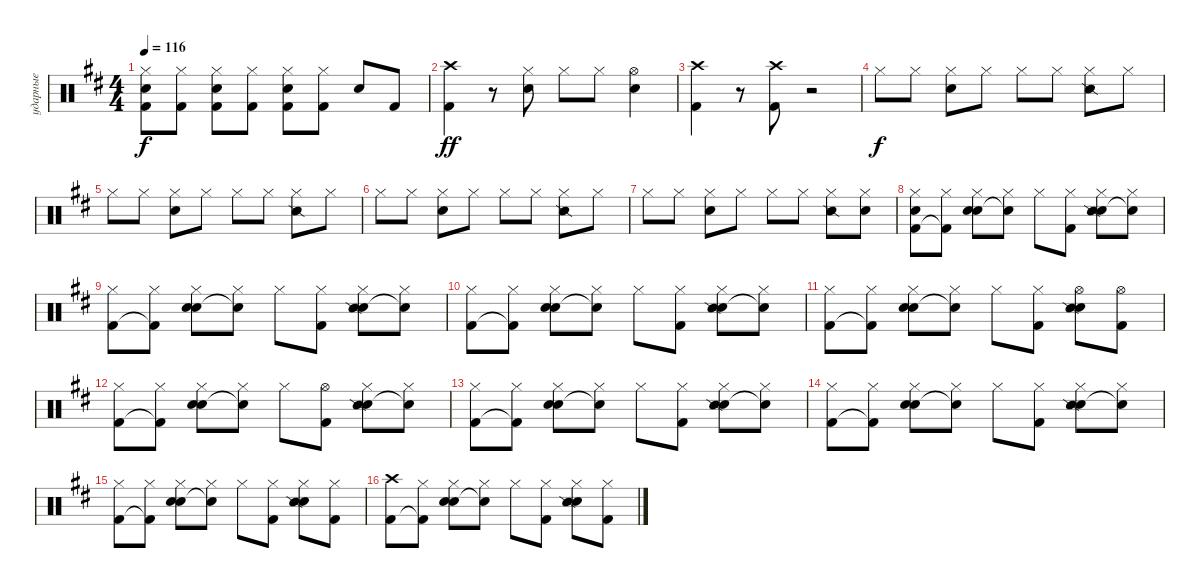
\track ("ударные" "ударные") {instrument percussion}
\staff {score}
\articulation defaults
\ts (4 4)
\tempo 116
\clef neutral
\ks d
("Hi-Hat (closed)" "Snare (hit) 2" "Kick (hit) 2").8{dy f} ("Hi-Hat (closed)" "Kick (hit) 2").8 ("Hi-Hat (closed)" "Snare (hit) 2" "Kick (hit) 2").8 ("Hi-Hat (closed)" "Kick (hit) 2").8 ("Hi-Hat (closed)" "Snare (hit) 2" "Kick (hit) 2").8 ("Hi-Hat (closed)" "Kick (hit) 2").8 "Snare (hit) 2".8 "Kick (hit) 2".8 |
("Crash high (hit)" "Kick (hit) 2").4{dy ff} r.8 ("Hi-Hat (closed)" "Snare (hit) 2").8 "Hi-Hat (closed)".8 "Hi-Hat (closed)".8 ("Hi-Hat (open)" "Snare (hit) 2").4 |
("Crash high (hit)" "Kick (hit) 2").4 r.8 ("Crash high (hit)" "Kick (hit) 2").8 r.2 |
"Hi-Hat (closed)".8{dy f} "Hi-Hat (closed)".8 ("Hi-Hat (closed)" "Hand Clap (hit)").8 "Hi-Hat (closed)".8 "Hi-Hat (closed)".8 "Hi-Hat (closed)".8 ("Hi-Hat (closed)" "Snare (side stick) 2").8 "Hi-Hat (closed)".8 |
"Hi-Hat (closed)".8 "Hi-Hat (closed)".8 ("Hi-Hat (closed)" "Hand Clap (hit)").8 "Hi-Hat (closed)".8 "Hi-Hat (closed)".8 "Hi-Hat (closed)".8 ("Hi-Hat (closed)" "Snare (side stick) 2").8 "Hi-Hat (closed)".8 |
"Hi-Hat (closed)".8 "Hi-Hat (closed)".8 ("Hi-Hat (closed)" "Hand Clap (hit)").8 "Hi-Hat (closed)".8 "Hi-Hat (closed)".8 "Hi-Hat (closed)".8 ("Hi-Hat (closed)" "Snare (side stick) 2").8 "Hi-Hat (closed)".8 |
"Hi-Hat (closed)".8 "Hi-Hat (closed)".8 ("Hi-Hat (closed)" "Hand Clap (hit)").8 "Hi-Hat (closed)".8 "Hi-Hat (closed)".8 "Hi-Hat (closed)".8 ("Hi-Hat (closed)" "Snare (side stick) 2").8 ("Hi-Hat (closed)" "Hand Clap (hit)").8 |
("Hi-Hat (closed)" "Kick (hit) 2" "Snare (hit) 2").8 ("Hi-Hat (closed)" "Kick (hit) 2"{t}).8 ("Hi-Hat (closed)" "Snare (hit) 2" "Hand Clap (hit)").8 ("Hi-Hat (closed)" "Snare (hit) 2"{t}).8 "Hi-Hat (closed)".8 ("Hi-Hat (closed)" "Kick (hit) 2").8 ("Hi-Hat (closed)" "Snare (hit) 2" "Snare (side stick) 2").8 ("Hi-Hat (closed)" "Snare (hit) 2"{t}).8 |
("Hi-Hat (closed)" "Kick (hit) 2").8 ("Hi-Hat (closed)" "Kick (hit) 2"{t}).8 ("Hi-Hat (closed)" "Snare (hit) 2" "Hand Clap (hit)").8 ("Hi-Hat (closed)" "Snare (hit) 2"{t}).8 "Hi-Hat (closed)".8 ("Hi-Hat (closed)" "Kick (hit) 2").8 ("Hi-Hat (closed)" "Snare (hit) 2" "Snare (side stick) 2").8 ("Hi-Hat (closed)" "Snare (hit) 2"{t}).8 |
("Hi-Hat (closed)" "Kick (hit) 2").8 ("Hi-Hat (closed)" "Kick (hit) 2"{t}).8 ("Hi-Hat (closed)" "Snare (hit) 2" "Hand Clap (hit)").8 ("Hi-Hat (closed)" "Snare (hit) 2"{t}).8 "Hi-Hat (closed)".8 ("Hi-Hat (closed)" "Kick (hit) 2").8 ("Hi-Hat (closed)" "Snare (hit) 2" "Snare (side stick) 2").8 ("Hi-Hat (closed)" "Snare (hit) 2"{t}).8 |
("Hi-Hat (closed)" "Kick (hit) 2").8 ("Hi-Hat (closed)" "Kick (hit) 2"{t}).8 ("Hi-Hat (closed)" "Snare (hit) 2" "Hand Clap (hit)").8 ("Hi-Hat (closed)" "Snare (hit) 2"{t}).8 "Hi-Hat (closed)".8 ("Hi-Hat (closed)" "Kick (hit) 2").8 ("Hi-Hat (open)" "Snare (hit) 2" "Snare (side stick) 2").8 ("Hi-Hat (open)" "Kick (hit) 2").8 |
("Hi-Hat (closed)" "Kick (hit) 2").8 ("Hi-Hat (closed)" "Kick (hit) 2"{t}).8 ("Hi-Hat (closed)" "Snare (hit) 2" "Hand Clap (hit)").8 ("Hi-Hat (closed)" "Snare (hit) 2"{t}).8 "Hi-Hat (closed)".8 ("Hi-Hat (open)" "Kick (hit) 2").8 ("Hi-Hat (closed)" "Snare (hit) 2" "Snare (side stick) 2").8 ("Hi-Hat (closed)" "Snare (hit) 2"{t}).8 |
("Hi-Hat (closed)" "Kick (hit) 2").8 ("Hi-Hat (closed)" "Kick (hit) 2"{t}).8 ("Hi-Hat (closed)" "Snare (hit) 2" "Hand Clap (hit)").8 ("Hi-Hat (closed)" "Snare (hit) 2"{t}).8 "Hi-Hat (closed)".8 ("Hi-Hat (closed)" "Kick (hit) 2").8 ("Hi-Hat (closed)" "Snare (hit) 2" "Snare (side stick) 2").8 ("Hi-Hat (closed)" "Snare (hit) 2"{t}).8 |
("Hi-Hat (closed)" "Kick (hit) 2").8 ("Hi-Hat (closed)" "Kick (hit) 2"{t}).8 ("Hi-Hat (closed)" "Snare (hit) 2" "Hand Clap (hit)").8 ("Hi-Hat (closed)" "Snare (hit) 2"{t}).8 "Hi-Hat (closed)".8 ("Hi-Hat (closed)" "Kick (hit) 2").8 ("Hi-Hat (closed)" "Snare (hit) 2" "Snare (side stick) 2").8 ("Hi-Hat (closed)" "Snare (hit) 2"{t}).8 |
("Hi-Hat (closed)" "Kick (hit) 2").8 ("Hi-Hat (closed)" "Kick (hit) 2"{t}).8 ("Hi-Hat (closed)" "Snare (hit) 2" "Hand Clap (hit)").8 ("Hi-Hat (closed)" "Snare (hit) 2"{t}).8 "Hi-Hat (closed)".8 ("Hi-Hat (closed)" "Kick (hit) 2").8 ("Hi-Hat (closed)" "Snare (hit) 2" "Snare (side stick) 2").8 ("Hi-Hat (closed)" "Kick (hit) 2").8 |
("Crash high (hit)" "Kick (hit) 2").8 ("Hi-Hat (closed)" "Kick (hit) 2"{t}).8 ("Hi-Hat (closed)" "Snare (hit) 2" "Hand Clap (hit)").8 ("Hi-Hat (closed)" "Snare (hit) 2"{t}).8 "Hi-Hat (closed)".8 ("Hi-Hat (closed)" "Kick (hit) 2").8 ("Hi-Hat (closed)" "Snare (hit) 2" "Snare (side stick) 2").8 ("Hi-Hat (closed)" "Kick (hit) 2").8
